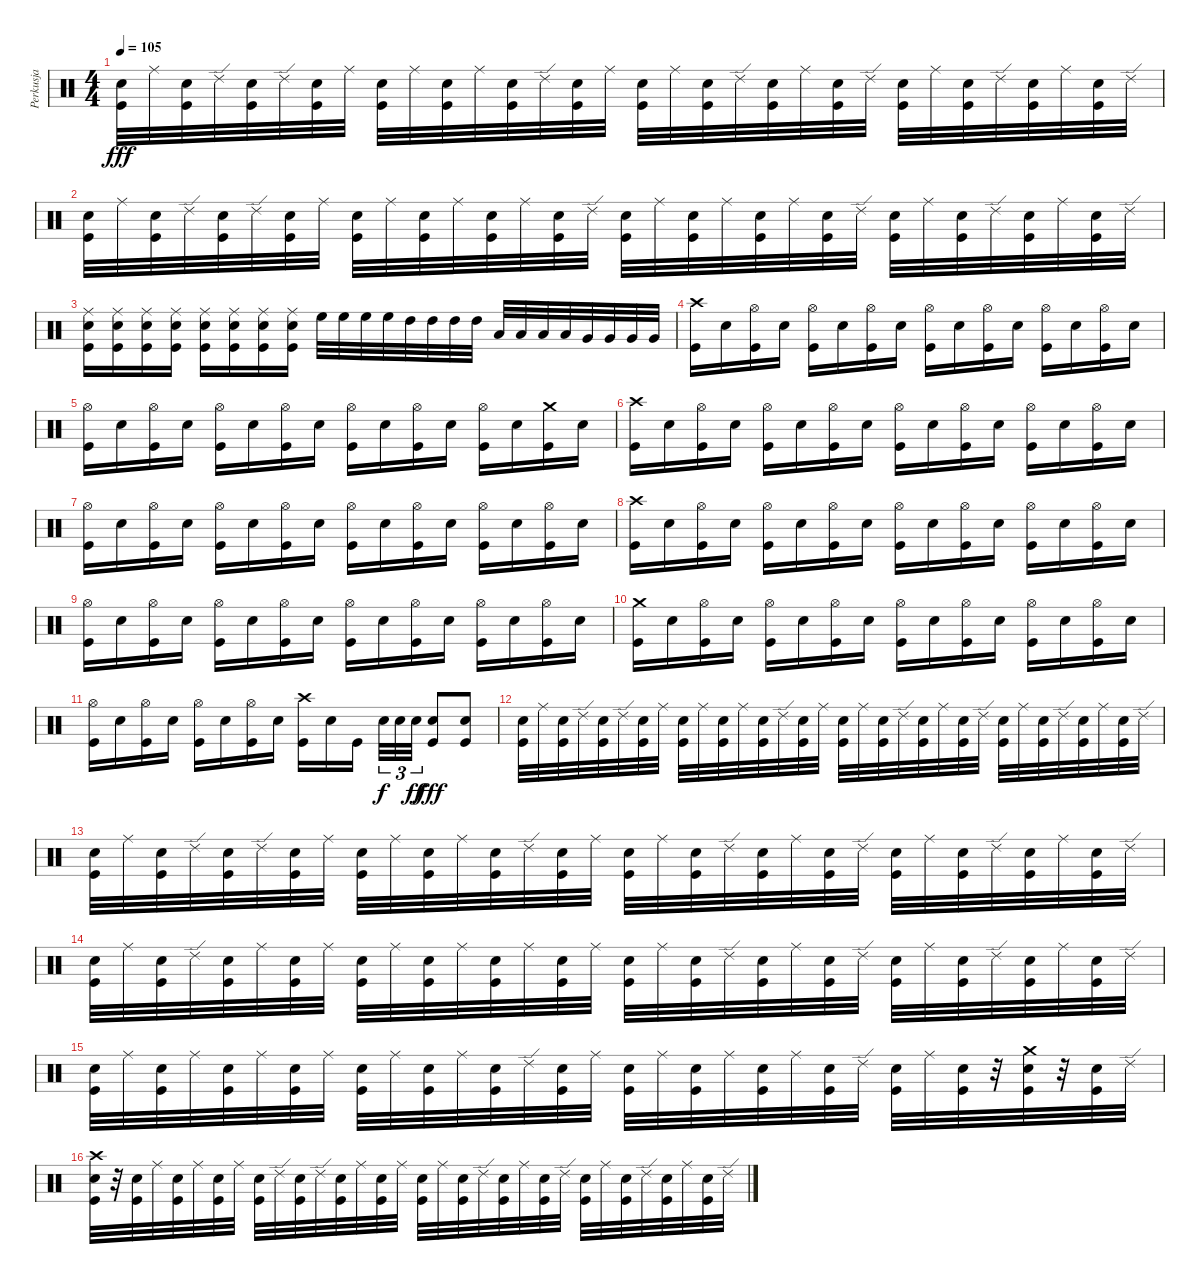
\track ("Perkusja" "Perkusja") {instrument percussion}
\staff {score}
\articulation defaults
\ts (4 4)
\tempo 105
\clef neutral
\ks c
("Snare (hit) 2" "Kick (hit)").32{dy fff} "Ride (middle)".32 ("Snare (hit) 2" "Kick (hit)").32 "Ride (edge) 2".32 ("Snare (hit) 2" "Kick (hit)").32 "Ride (edge) 2".32 ("Snare (hit) 2" "Kick (hit)").32 "Ride (middle)".32 ("Snare (hit) 2" "Kick (hit)").32 "Ride (middle)".32 ("Snare (hit) 2" "Kick (hit)").32 "Ride (middle)".32 ("Snare (hit) 2" "Kick (hit)").32 "Ride (edge) 2".32 ("Snare (hit) 2" "Kick (hit)").32 "Ride (middle)".32 ("Snare (hit) 2" "Kick (hit)").32 "Ride (middle)".32 ("Snare (hit) 2" "Kick (hit)").32 "Ride (edge) 2".32 ("Snare (hit) 2" "Kick (hit)").32 "Ride (middle)".32 ("Snare (hit) 2" "Kick (hit)").32 "Ride (edge) 2".32 ("Snare (hit) 2" "Kick (hit)").32 "Ride (middle)".32 ("Snare (hit) 2" "Kick (hit)").32 "Ride (edge) 2".32 ("Snare (hit) 2" "Kick (hit)").32 "Ride (middle)".32 ("Snare (hit) 2" "Kick (hit)").32 "Ride (edge) 2".32 |
("Snare (hit) 2" "Kick (hit)").32 "Ride (middle)".32 ("Snare (hit) 2" "Kick (hit)").32 "Ride (edge) 2".32 ("Snare (hit) 2" "Kick (hit)").32 "Ride (edge) 2".32 ("Snare (hit) 2" "Kick (hit)").32 "Ride (middle)".32 ("Snare (hit) 2" "Kick (hit)").32 "Ride (middle)".32 ("Snare (hit) 2" "Kick (hit)").32 "Ride (middle)".32 ("Snare (hit) 2" "Kick (hit)").32 "Ride (middle)".32 ("Snare (hit) 2" "Kick (hit)").32 "Ride (edge) 2".32 ("Snare (hit) 2" "Kick (hit)").32 "Ride (middle)".32 ("Snare (hit) 2" "Kick (hit)").32 "Ride (middle)".32 ("Snare (hit) 2" "Kick (hit)").32 "Ride (middle)".32 ("Snare (hit) 2" "Kick (hit)").32 "Ride (edge) 2".32 ("Snare (hit) 2" "Kick (hit)").32 "Ride (middle)".32 ("Snare (hit) 2" "Kick (hit)").32 "Ride (edge) 2".32 ("Snare (hit) 2" "Kick (hit)").32 "Ride (middle)".32 ("Snare (hit) 2" "Kick (hit)").32 "Ride (edge) 2".32 |
("Ride (middle)" "Snare (hit) 2" "Kick (hit)").16 ("Ride (middle)" "Snare (hit) 2" "Kick (hit)").16 ("Ride (middle)" "Snare (hit) 2" "Kick (hit)").16 ("Ride (middle)" "Snare (hit) 2" "Kick (hit)").16 ("Ride (middle)" "Snare (hit) 2" "Kick (hit)").16 ("Ride (middle)" "Snare (hit) 2" "Kick (hit)").16 ("Ride (middle)" "Snare (hit) 2" "Kick (hit)").16 ("Ride (middle)" "Snare (hit) 2" "Kick (hit)").16 "High Floor Tom (hit)".32{balance 0} "High Floor Tom (hit)".32{balance 16} "High Floor Tom (hit)".32 "High Floor Tom (hit)".32 "High Tom (hit)".32 "High Tom (hit)".32 "High Tom (hit)".32 "High Tom (hit)".32 "Low Tom (hit)".32 "Low Tom (hit)".32 "Low Tom (hit)".32 "Low Tom (hit)".32 "Very Low Tom (hit)".32 "Very Low Tom (hit)".32 "Very Low Tom (hit)".32 "Very Low Tom (hit)".32 |
("Crash high (hit)" "Kick (hit)").16 "Snare (hit) 2".16{balance 8} ("Hi-Hat (open)" "Kick (hit)").16 "Snare (hit) 2".16 ("Hi-Hat (open)" "Kick (hit)").16 "Snare (hit) 2".16 ("Hi-Hat (open)" "Kick (hit)").16 "Snare (hit) 2".16 ("Hi-Hat (open)" "Kick (hit)").16 "Snare (hit) 2".16 ("Hi-Hat (open)" "Kick (hit)").16 "Snare (hit) 2".16 ("Hi-Hat (open)" "Kick (hit)").16 "Snare (hit) 2".16 ("Hi-Hat (open)" "Kick (hit)").16 "Snare (hit) 2".16 |
("Hi-Hat (open)" "Kick (hit)").16 "Snare (hit) 2".16 ("Hi-Hat (open)" "Kick (hit)").16 "Snare (hit) 2".16 ("Hi-Hat (open)" "Kick (hit)").16 "Snare (hit) 2".16 ("Hi-Hat (open)" "Kick (hit)").16 "Snare (hit) 2".16 ("Hi-Hat (open)" "Kick (hit)").16 "Snare (hit) 2".16 ("Hi-Hat (open)" "Kick (hit)").16 "Snare (hit) 2".16 ("Hi-Hat (open)" "Kick (hit)").16 "Snare (hit) 2".16 ("Crash medium (hit)" "Kick (hit)").16 "Snare (hit) 2".16 |
("Crash high (hit)" "Kick (hit)").16 "Snare (hit) 2".16 ("Hi-Hat (open)" "Kick (hit)").16 "Snare (hit) 2".16 ("Hi-Hat (open)" "Kick (hit)").16 "Snare (hit) 2".16 ("Hi-Hat (open)" "Kick (hit)").16 "Snare (hit) 2".16 ("Hi-Hat (open)" "Kick (hit)").16 "Snare (hit) 2".16 ("Hi-Hat (open)" "Kick (hit)").16 "Snare (hit) 2".16 ("Hi-Hat (open)" "Kick (hit)").16 "Snare (hit) 2".16 ("Hi-Hat (open)" "Kick (hit)").16 "Snare (hit) 2".16 |
("Hi-Hat (open)" "Kick (hit)").16 "Snare (hit) 2".16 ("Hi-Hat (open)" "Kick (hit)").16 "Snare (hit) 2".16 ("Hi-Hat (open)" "Kick (hit)").16 "Snare (hit) 2".16 ("Hi-Hat (open)" "Kick (hit)").16 "Snare (hit) 2".16 ("Hi-Hat (open)" "Kick (hit)").16 "Snare (hit) 2".16 ("Hi-Hat (open)" "Kick (hit)").16 "Snare (hit) 2".16 ("Hi-Hat (open)" "Kick (hit)").16 "Snare (hit) 2".16 ("Hi-Hat (open)" "Kick (hit)").16 "Snare (hit) 2".16 |
("Crash high (hit)" "Kick (hit)").16 "Snare (hit) 2".16 ("Hi-Hat (open)" "Kick (hit)").16 "Snare (hit) 2".16 ("Hi-Hat (open)" "Kick (hit)").16 "Snare (hit) 2".16 ("Hi-Hat (open)" "Kick (hit)").16 "Snare (hit) 2".16 ("Hi-Hat (open)" "Kick (hit)").16 "Snare (hit) 2".16 ("Hi-Hat (open)" "Kick (hit)").16 "Snare (hit) 2".16 ("Hi-Hat (open)" "Kick (hit)").16 "Snare (hit) 2".16 ("Hi-Hat (open)" "Kick (hit)").16 "Snare (hit) 2".16 |
("Hi-Hat (open)" "Kick (hit)").16 "Snare (hit) 2".16 ("Hi-Hat (open)" "Kick (hit)").16 "Snare (hit) 2".16 ("Hi-Hat (open)" "Kick (hit)").16 "Snare (hit) 2".16 ("Hi-Hat (open)" "Kick (hit)").16 "Snare (hit) 2".16 ("Hi-Hat (open)" "Kick (hit)").16 "Snare (hit) 2".16 ("Hi-Hat (open)" "Kick (hit)").16 "Snare (hit) 2".16 ("Hi-Hat (open)" "Kick (hit)").16 "Snare (hit) 2".16 ("Hi-Hat (open)" "Kick (hit)").16 "Snare (hit) 2".16 |
("Crash medium (hit)" "Kick (hit)").16 "Snare (hit) 2".16 ("Hi-Hat (open)" "Kick (hit)").16 "Snare (hit) 2".16 ("Hi-Hat (open)" "Kick (hit)").16 "Snare (hit) 2".16 ("Hi-Hat (open)" "Kick (hit)").16 "Snare (hit) 2".16 ("Hi-Hat (open)" "Kick (hit)").16 "Snare (hit) 2".16 ("Hi-Hat (open)" "Kick (hit)").16 "Snare (hit) 2".16 ("Hi-Hat (open)" "Kick (hit)").16 "Snare (hit) 2".16 ("Hi-Hat (open)" "Kick (hit)").16 "Snare (hit) 2".16 |
("Hi-Hat (open)" "Kick (hit)").16 "Snare (hit) 2".16 ("Hi-Hat (open)" "Kick (hit)").16 "Snare (hit) 2".16 ("Hi-Hat (open)" "Kick (hit)").16 "Snare (hit) 2".16 ("Hi-Hat (open)" "Kick (hit)").16 "Snare (hit) 2".16 ("Crash high (hit)" "Kick (hit)").16 "Snare (hit) 2".16 "Kick (hit)".16 "Snare (hit) 2".32{tu (3 2) dy f} "Snare (hit) 2".32{tu (3 2)} "Snare (hit) 2".32{tu (3 2) dy ff} ("Snare (hit) 2" "Kick (hit)").8{dy fff} ("Snare (hit) 2" "Kick (hit)").8 |
("Snare (hit) 2" "Kick (hit)").32 "Ride (middle)".32 ("Snare (hit) 2" "Kick (hit)").32 "Ride (edge) 2".32 ("Snare (hit) 2" "Kick (hit)").32 "Ride (edge) 2".32 ("Snare (hit) 2" "Kick (hit)").32 "Ride (middle)".32 ("Snare (hit) 2" "Kick (hit)").32 "Ride (middle)".32 ("Snare (hit) 2" "Kick (hit)").32 "Ride (middle)".32 ("Snare (hit) 2" "Kick (hit)").32 "Ride (edge) 2".32 ("Snare (hit) 2" "Kick (hit)").32 "Ride (middle)".32 ("Snare (hit) 2" "Kick (hit)").32 "Ride (middle)".32 ("Snare (hit) 2" "Kick (hit)").32 "Ride (edge) 2".32 ("Snare (hit) 2" "Kick (hit)").32 "Ride (middle)".32 ("Snare (hit) 2" "Kick (hit)").32 "Ride (edge) 2".32 ("Snare (hit) 2" "Kick (hit)").32 "Ride (middle)".32 ("Snare (hit) 2" "Kick (hit)").32 "Ride (edge) 2".32 ("Snare (hit) 2" "Kick (hit)").32 "Ride (middle)".32 ("Snare (hit) 2" "Kick (hit)").32 "Ride (edge) 2".32 |
("Snare (hit) 2" "Kick (hit)").32 "Ride (middle)".32 ("Snare (hit) 2" "Kick (hit)").32 "Ride (edge) 2".32 ("Snare (hit) 2" "Kick (hit)").32 "Ride (edge) 2".32 ("Snare (hit) 2" "Kick (hit)").32 "Ride (middle)".32 ("Snare (hit) 2" "Kick (hit)").32 "Ride (middle)".32 ("Snare (hit) 2" "Kick (hit)").32 "Ride (middle)".32 ("Snare (hit) 2" "Kick (hit)").32 "Ride (edge) 2".32 ("Snare (hit) 2" "Kick (hit)").32 "Ride (middle)".32 ("Snare (hit) 2" "Kick (hit)").32 "Ride (middle)".32 ("Snare (hit) 2" "Kick (hit)").32 "Ride (edge) 2".32 ("Snare (hit) 2" "Kick (hit)").32 "Ride (middle)".32 ("Snare (hit) 2" "Kick (hit)").32 "Ride (edge) 2".32 ("Snare (hit) 2" "Kick (hit)").32 "Ride (middle)".32 ("Snare (hit) 2" "Kick (hit)").32 "Ride (edge) 2".32 ("Snare (hit) 2" "Kick (hit)").32 "Ride (middle)".32 ("Snare (hit) 2" "Kick (hit)").32 "Ride (edge) 2".32 |
("Snare (hit) 2" "Kick (hit)").32 "Ride (middle)".32 ("Snare (hit) 2" "Kick (hit)").32 "Ride (edge) 2".32 ("Snare (hit) 2" "Kick (hit)").32 "Ride (middle)".32 ("Snare (hit) 2" "Kick (hit)").32 "Ride (middle)".32 ("Snare (hit) 2" "Kick (hit)").32 "Ride (middle)".32 ("Snare (hit) 2" "Kick (hit)").32 "Ride (middle)".32 ("Snare (hit) 2" "Kick (hit)").32 "Ride (middle)".32 ("Snare (hit) 2" "Kick (hit)").32 "Ride (middle)".32 ("Snare (hit) 2" "Kick (hit)").32 "Ride (middle)".32 ("Snare (hit) 2" "Kick (hit)").32 "Ride (edge) 2".32 ("Snare (hit) 2" "Kick (hit)").32 "Ride (middle)".32 ("Snare (hit) 2" "Kick (hit)").32 "Ride (edge) 2".32 ("Snare (hit) 2" "Kick (hit)").32 "Ride (middle)".32 ("Snare (hit) 2" "Kick (hit)").32 "Ride (edge) 2".32 ("Snare (hit) 2" "Kick (hit)").32 "Ride (middle)".32 ("Snare (hit) 2" "Kick (hit)").32 "Ride (edge) 2".32 |
("Snare (hit) 2" "Kick (hit)").32 "Ride (middle)".32 ("Snare (hit) 2" "Kick (hit)").32 "Ride (middle)".32 ("Snare (hit) 2" "Kick (hit)").32 "Ride (middle)".32 ("Snare (hit) 2" "Kick (hit)").32 "Ride (middle)".32 ("Snare (hit) 2" "Kick (hit)").32 "Ride (middle)".32 ("Snare (hit) 2" "Kick (hit)").32 "Ride (middle)".32 ("Snare (hit) 2" "Kick (hit)").32 "Ride (edge) 2".32 ("Snare (hit) 2" "Kick (hit)").32 "Ride (middle)".32 ("Snare (hit) 2" "Kick (hit)").32 "Ride (middle)".32 ("Snare (hit) 2" "Kick (hit)").32 "Ride (middle)".32 ("Snare (hit) 2" "Kick (hit)").32 "Ride (middle)".32 ("Snare (hit) 2" "Kick (hit)").32 "Ride (edge) 2".32 ("Snare (hit) 2" "Kick (hit)").32 "Ride (middle)".32 ("Snare (hit) 2" "Kick (hit)").32 r.32 ("Crash medium (hit)" "Snare (hit) 2" "Kick (hit)").32 r.32 ("Snare (hit) 2" "Kick (hit)").32 "Ride (edge) 2".32 |
("Crash high (hit)" "Snare (hit) 2" "Kick (hit)").32 r.32 ("Snare (hit) 2" "Kick (hit)").32 "Ride (middle)".32 ("Snare (hit) 2" "Kick (hit)").32 "Ride (middle)".32 ("Snare (hit) 2" "Kick (hit)").32 "Ride (middle)".32 ("Snare (hit) 2" "Kick (hit)").32 "Ride (edge) 2".32 ("Snare (hit) 2" "Kick (hit)").32 "Ride (edge) 2".32 ("Snare (hit) 2" "Kick (hit)").32 "Ride (middle)".32 ("Snare (hit) 2" "Kick (hit)").32 "Ride (middle)".32 ("Snare (hit) 2" "Kick (hit)").32 "Ride (middle)".32 ("Snare (hit) 2" "Kick (hit)").32 "Ride (edge) 2".32 ("Snare (hit) 2" "Kick (hit)").32 "Ride (middle)".32 ("Snare (hit) 2" "Kick (hit)").32 "Ride (edge) 2".32 ("Snare (hit) 2" "Kick (hit)").32 "Ride (middle)".32 ("Snare (hit) 2" "Kick (hit)").32 "Ride (edge) 2".32 ("Snare (hit) 2" "Kick (hit)").32 "Ride (middle)".32 ("Snare (hit) 2" "Kick (hit)").32 "Ride (edge) 2".32
